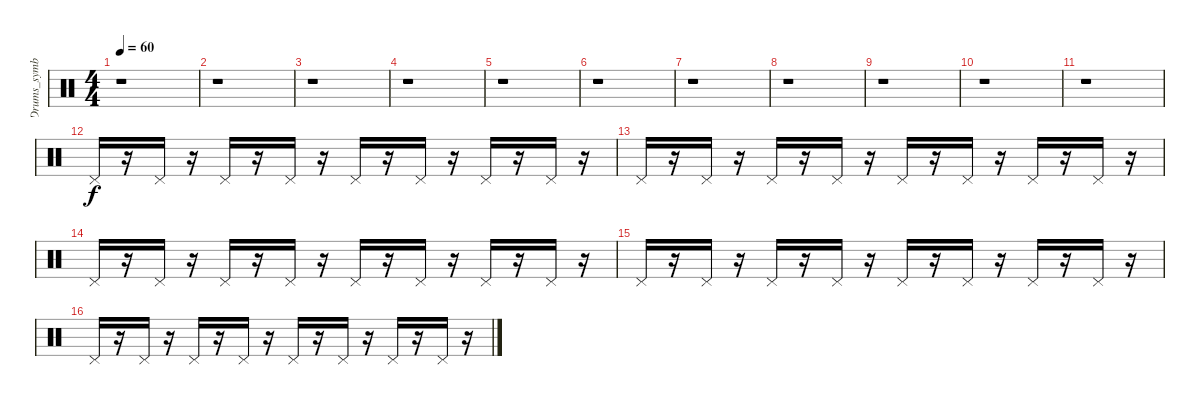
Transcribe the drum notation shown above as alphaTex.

\track ("Drums_symbal" "Drums_symb") {instrument percussion}
\staff {score}
\articulation defaults
\ts (4 4)
\tempo 60
\clef neutral
\ks c
r.1{dy f} |
r.1 |
r.1 |
r.1 |
r.1 |
r.1 |
r.1 |
r.1 |
r.1 |
r.1 |
r.1 |
"Pedal Hi-Hat (hit)".16 r.16 "Pedal Hi-Hat (hit)".16 r.16 "Pedal Hi-Hat (hit)".16 r.16 "Pedal Hi-Hat (hit)".16 r.16 "Pedal Hi-Hat (hit)".16 r.16 "Pedal Hi-Hat (hit)".16 r.16 "Pedal Hi-Hat (hit)".16 r.16 "Pedal Hi-Hat (hit)".16 r.16 |
"Pedal Hi-Hat (hit)".16 r.16 "Pedal Hi-Hat (hit)".16 r.16 "Pedal Hi-Hat (hit)".16 r.16 "Pedal Hi-Hat (hit)".16 r.16 "Pedal Hi-Hat (hit)".16 r.16 "Pedal Hi-Hat (hit)".16 r.16 "Pedal Hi-Hat (hit)".16 r.16 "Pedal Hi-Hat (hit)".16 r.16 |
"Pedal Hi-Hat (hit)".16 r.16 "Pedal Hi-Hat (hit)".16 r.16 "Pedal Hi-Hat (hit)".16 r.16 "Pedal Hi-Hat (hit)".16 r.16 "Pedal Hi-Hat (hit)".16 r.16 "Pedal Hi-Hat (hit)".16 r.16 "Pedal Hi-Hat (hit)".16 r.16 "Pedal Hi-Hat (hit)".16 r.16 |
"Pedal Hi-Hat (hit)".16 r.16 "Pedal Hi-Hat (hit)".16 r.16 "Pedal Hi-Hat (hit)".16 r.16 "Pedal Hi-Hat (hit)".16 r.16 "Pedal Hi-Hat (hit)".16 r.16 "Pedal Hi-Hat (hit)".16 r.16 "Pedal Hi-Hat (hit)".16 r.16 "Pedal Hi-Hat (hit)".16 r.16 |
"Pedal Hi-Hat (hit)".16 r.16 "Pedal Hi-Hat (hit)".16 r.16 "Pedal Hi-Hat (hit)".16 r.16 "Pedal Hi-Hat (hit)".16 r.16 "Pedal Hi-Hat (hit)".16 r.16 "Pedal Hi-Hat (hit)".16 r.16 "Pedal Hi-Hat (hit)".16 r.16 "Pedal Hi-Hat (hit)".16 r.16
